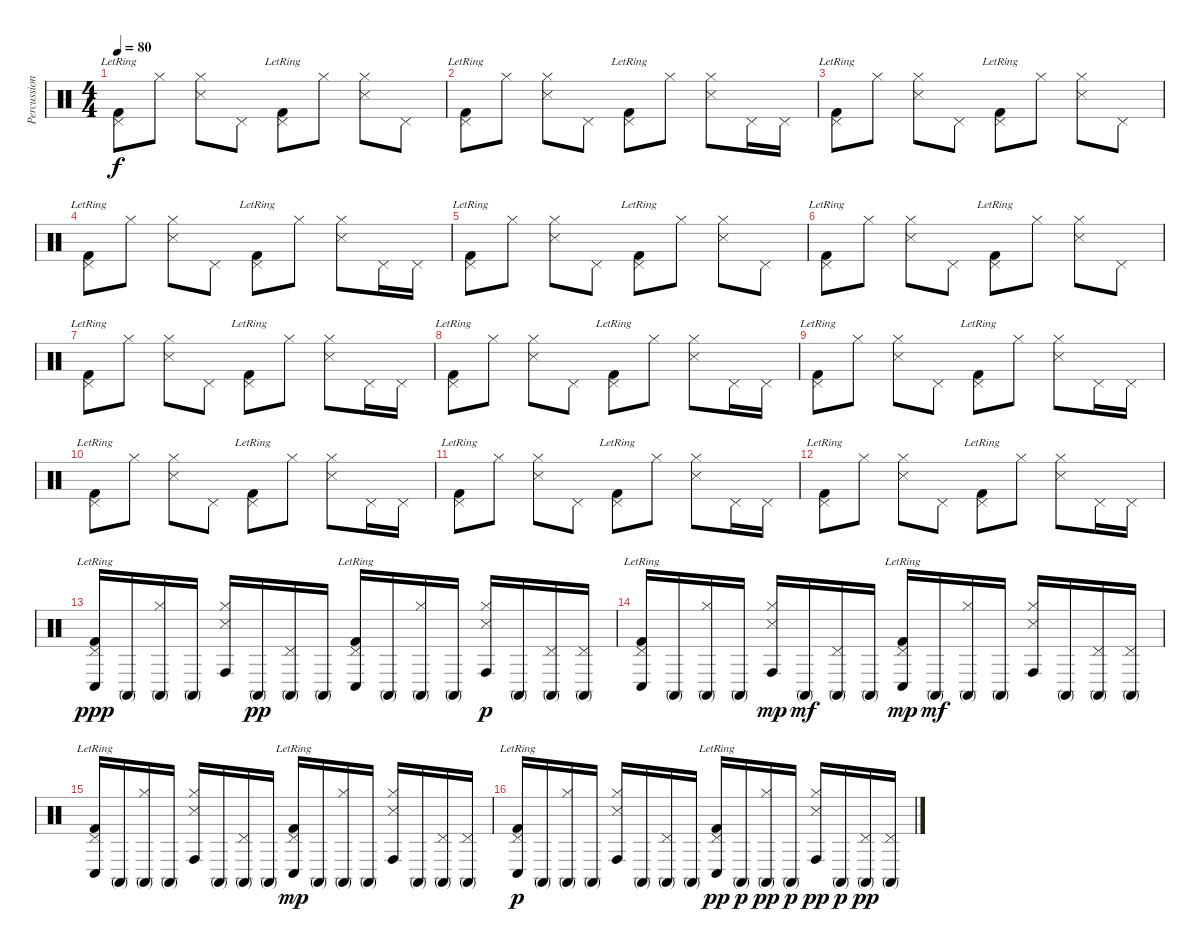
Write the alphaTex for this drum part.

\track ("Percussions / Batterie" "Percussion") {instrument percussion}
\staff {score}
\articulation defaults
\ts (4 4)
\tempo 80
\clef neutral
\ks c
("Pedal Hi-Hat (hit)" "Kick (hit) 2"{lr}).8{dy f} "Hi-Hat (closed)".8 ("Hi-Hat (closed)" "Snare (side stick) 3").8 "Pedal Hi-Hat (hit)".8 ("Pedal Hi-Hat (hit)" "Kick (hit) 2"{lr}).8 "Hi-Hat (closed)".8 ("Hi-Hat (closed)" "Snare (side stick) 3").8 "Pedal Hi-Hat (hit)".8 |
("Pedal Hi-Hat (hit)" "Kick (hit) 2"{lr}).8 "Hi-Hat (closed)".8 ("Hi-Hat (closed)" "Snare (side stick) 3").8 "Pedal Hi-Hat (hit)".8 ("Pedal Hi-Hat (hit)" "Kick (hit) 2"{lr}).8 "Hi-Hat (closed)".8 ("Hi-Hat (closed)" "Snare (side stick) 3").8 "Pedal Hi-Hat (hit)".16 "Pedal Hi-Hat (hit)".16 |
("Pedal Hi-Hat (hit)" "Kick (hit) 2"{lr}).8 "Hi-Hat (closed)".8 ("Hi-Hat (closed)" "Snare (side stick) 3").8 "Pedal Hi-Hat (hit)".8 ("Pedal Hi-Hat (hit)" "Kick (hit) 2"{lr}).8 "Hi-Hat (closed)".8 ("Hi-Hat (closed)" "Snare (side stick) 3").8 "Pedal Hi-Hat (hit)".8 |
("Pedal Hi-Hat (hit)" "Kick (hit) 2"{lr}).8 "Hi-Hat (closed)".8 ("Hi-Hat (closed)" "Snare (side stick) 3").8 "Pedal Hi-Hat (hit)".8 ("Pedal Hi-Hat (hit)" "Kick (hit) 2"{lr}).8 "Hi-Hat (closed)".8 ("Hi-Hat (closed)" "Snare (side stick) 3").8 "Pedal Hi-Hat (hit)".16 "Pedal Hi-Hat (hit)".16 |
("Pedal Hi-Hat (hit)" "Kick (hit) 2"{lr}).8 "Hi-Hat (closed)".8 ("Hi-Hat (closed)" "Snare (side stick) 3").8 "Pedal Hi-Hat (hit)".8 ("Pedal Hi-Hat (hit)" "Kick (hit) 2"{lr}).8 "Hi-Hat (closed)".8 ("Hi-Hat (closed)" "Snare (side stick) 3").8 "Pedal Hi-Hat (hit)".8 |
("Pedal Hi-Hat (hit)" "Kick (hit) 2"{lr}).8 "Hi-Hat (closed)".8 ("Hi-Hat (closed)" "Snare (side stick) 3").8 "Pedal Hi-Hat (hit)".8 ("Pedal Hi-Hat (hit)" "Kick (hit) 2"{lr}).8 "Hi-Hat (closed)".8 ("Hi-Hat (closed)" "Snare (side stick) 3").8 "Pedal Hi-Hat (hit)".8 |
("Pedal Hi-Hat (hit)" "Kick (hit) 2"{lr}).8 "Hi-Hat (closed)".8 ("Hi-Hat (closed)" "Snare (side stick) 3").8 "Pedal Hi-Hat (hit)".8 ("Pedal Hi-Hat (hit)" "Kick (hit) 2"{lr}).8 "Hi-Hat (closed)".8 ("Hi-Hat (closed)" "Snare (side stick) 3").8 "Pedal Hi-Hat (hit)".16 "Pedal Hi-Hat (hit)".16 |
("Pedal Hi-Hat (hit)" "Kick (hit) 2"{lr}).8 "Hi-Hat (closed)".8 ("Hi-Hat (closed)" "Snare (side stick) 3").8 "Pedal Hi-Hat (hit)".8 ("Pedal Hi-Hat (hit)" "Kick (hit) 2"{lr}).8 "Hi-Hat (closed)".8 ("Hi-Hat (closed)" "Snare (side stick) 3").8 "Pedal Hi-Hat (hit)".16 "Pedal Hi-Hat (hit)".16 |
("Pedal Hi-Hat (hit)" "Kick (hit) 2"{lr}).8 "Hi-Hat (closed)".8 ("Hi-Hat (closed)" "Snare (side stick) 3").8 "Pedal Hi-Hat (hit)".8 ("Pedal Hi-Hat (hit)" "Kick (hit) 2"{lr}).8 "Hi-Hat (closed)".8 ("Hi-Hat (closed)" "Snare (side stick) 3").8 "Pedal Hi-Hat (hit)".16 "Pedal Hi-Hat (hit)".16 |
("Pedal Hi-Hat (hit)" "Kick (hit) 2"{lr}).8 "Hi-Hat (closed)".8 ("Hi-Hat (closed)" "Snare (side stick) 3").8 "Pedal Hi-Hat (hit)".8 ("Pedal Hi-Hat (hit)" "Kick (hit) 2"{lr}).8 "Hi-Hat (closed)".8 ("Hi-Hat (closed)" "Snare (side stick) 3").8 "Pedal Hi-Hat (hit)".16 "Pedal Hi-Hat (hit)".16 |
("Pedal Hi-Hat (hit)" "Kick (hit) 2"{lr}).8 "Hi-Hat (closed)".8 ("Hi-Hat (closed)" "Snare (side stick) 3").8 "Pedal Hi-Hat (hit)".8 ("Pedal Hi-Hat (hit)" "Kick (hit) 2"{lr}).8 "Hi-Hat (closed)".8 ("Hi-Hat (closed)" "Snare (side stick) 3").8 "Pedal Hi-Hat (hit)".16 "Pedal Hi-Hat (hit)".16 |
("Pedal Hi-Hat (hit)" "Kick (hit) 2"{lr}).8 "Hi-Hat (closed)".8 ("Hi-Hat (closed)" "Snare (side stick) 3").8 "Pedal Hi-Hat (hit)".8 ("Pedal Hi-Hat (hit)" "Kick (hit) 2"{lr}).8 "Hi-Hat (closed)".8 ("Hi-Hat (closed)" "Snare (side stick) 3").8 "Pedal Hi-Hat (hit)".16 "Pedal Hi-Hat (hit)".16 |
("Conga low (hit)" "Pedal Hi-Hat (hit)" "Kick (hit) 2"{lr}).16{dy ppp} "Conga high (mute)".16 ("Conga high (mute)" "Hi-Hat (closed)").16 "Conga high (mute)".16 ("Conga high (hit)" "Hi-Hat (closed)" "Snare (side stick) 3").16 "Conga high (mute)".16{dy pp} ("Conga high (mute)" "Pedal Hi-Hat (hit)").16 "Conga high (mute)".16 ("Conga low (hit)" "Pedal Hi-Hat (hit)" "Kick (hit) 2"{lr}).16 "Conga high (mute)".16 ("Conga high (mute)" "Hi-Hat (closed)").16 "Conga high (mute)".16 ("Conga high (hit)" "Hi-Hat (closed)" "Snare (side stick) 3").16{dy p} "Conga high (mute)".16 ("Conga high (mute)" "Pedal Hi-Hat (hit)").16 ("Conga high (mute)" "Pedal Hi-Hat (hit)").16 |
("Conga low (hit)" "Pedal Hi-Hat (hit)" "Kick (hit) 2"{lr}).16 "Conga high (mute)".16 ("Conga high (mute)" "Hi-Hat (closed)").16 "Conga high (mute)".16 ("Conga high (hit)" "Hi-Hat (closed)" "Snare (side stick) 3").16{dy mp} "Conga high (mute)".16{dy mf} ("Conga high (mute)" "Pedal Hi-Hat (hit)").16 "Conga high (mute)".16 ("Conga low (hit)" "Pedal Hi-Hat (hit)" "Kick (hit) 2"{lr}).16{dy mp} "Conga high (mute)".16{dy mf} ("Conga high (mute)" "Hi-Hat (closed)").16 "Conga high (mute)".16 ("Conga high (hit)" "Hi-Hat (closed)" "Snare (side stick) 3").16 "Conga high (mute)".16 ("Conga high (mute)" "Pedal Hi-Hat (hit)").16 ("Conga high (mute)" "Pedal Hi-Hat (hit)").16 |
("Conga low (hit)" "Pedal Hi-Hat (hit)" "Kick (hit) 2"{lr}).16 "Conga high (mute)".16 ("Conga high (mute)" "Hi-Hat (closed)").16 "Conga high (mute)".16 ("Conga high (hit)" "Hi-Hat (closed)" "Snare (side stick) 3").16 "Conga high (mute)".16 ("Conga high (mute)" "Pedal Hi-Hat (hit)").16 "Conga high (mute)".16 ("Conga low (hit)" "Pedal Hi-Hat (hit)" "Kick (hit) 2"{lr}).16{dy mp} "Conga high (mute)".16 ("Conga high (mute)" "Hi-Hat (closed)").16 "Conga high (mute)".16 ("Conga high (hit)" "Hi-Hat (closed)" "Snare (side stick) 3").16 "Conga high (mute)".16 ("Conga high (mute)" "Pedal Hi-Hat (hit)").16 ("Conga high (mute)" "Pedal Hi-Hat (hit)").16 |
("Conga low (hit)" "Pedal Hi-Hat (hit)" "Kick (hit) 2"{lr}).16{dy p} "Conga high (mute)".16 ("Conga high (mute)" "Hi-Hat (closed)").16 "Conga high (mute)".16 ("Conga high (hit)" "Hi-Hat (closed)" "Snare (side stick) 3").16 "Conga high (mute)".16 ("Conga high (mute)" "Pedal Hi-Hat (hit)").16 "Conga high (mute)".16 ("Conga low (hit)" "Pedal Hi-Hat (hit)" "Kick (hit) 2"{lr}).16{dy pp} "Conga high (mute)".16{dy p} ("Conga high (mute)" "Hi-Hat (closed)").16{dy pp} "Conga high (mute)".16{dy p} ("Conga high (hit)" "Hi-Hat (closed)" "Snare (side stick) 3").16{dy pp} "Conga high (mute)".16{dy p} ("Conga high (mute)" "Pedal Hi-Hat (hit)").16{dy pp} ("Conga high (mute)" "Pedal Hi-Hat (hit)").16
